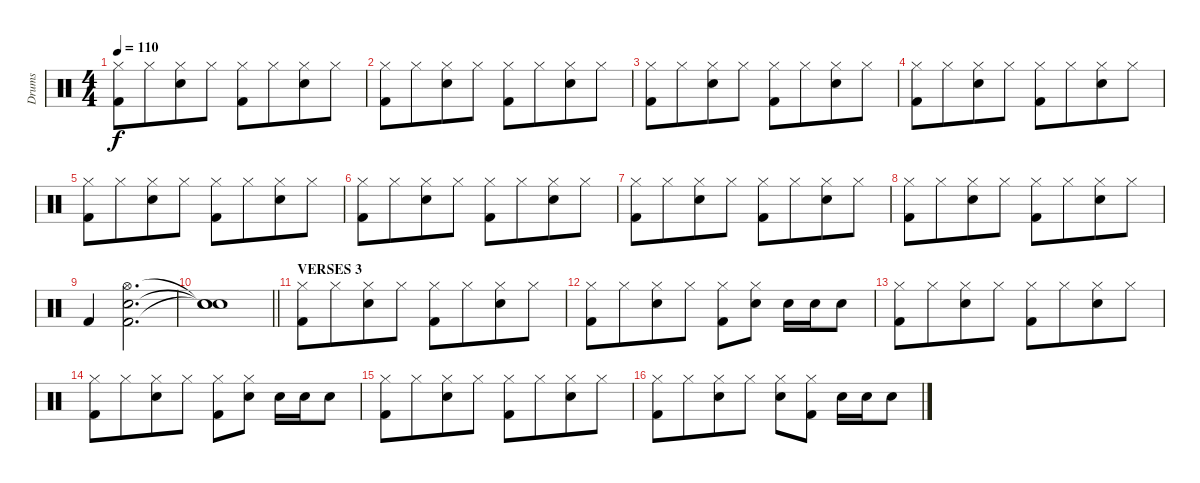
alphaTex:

\track ("Drums" "Drums") {instrument percussion}
\staff {score}
\articulation defaults
\ts (4 4)
\tempo 110
\clef neutral
\ks c
("Hi-Hat (closed)" "Kick (hit) 2").8{dy f} "Hi-Hat (closed)".8{beam merge} ("Hi-Hat (closed)" "Electric Snare (hit)").8 "Hi-Hat (closed)".8 ("Hi-Hat (closed)" "Kick (hit) 2").8 "Hi-Hat (closed)".8{beam merge} ("Hi-Hat (closed)" "Electric Snare (hit)").8 "Hi-Hat (closed)".8 |
("Hi-Hat (closed)" "Kick (hit) 2").8 "Hi-Hat (closed)".8{beam merge} ("Hi-Hat (closed)" "Electric Snare (hit)").8 "Hi-Hat (closed)".8 ("Hi-Hat (closed)" "Kick (hit) 2").8 "Hi-Hat (closed)".8{beam merge} ("Hi-Hat (closed)" "Electric Snare (hit)").8 "Hi-Hat (closed)".8 |
("Hi-Hat (closed)" "Kick (hit) 2").8 "Hi-Hat (closed)".8{beam merge} ("Hi-Hat (closed)" "Electric Snare (hit)").8 "Hi-Hat (closed)".8 ("Hi-Hat (closed)" "Kick (hit) 2").8 "Hi-Hat (closed)".8{beam merge} ("Hi-Hat (closed)" "Electric Snare (hit)").8 "Hi-Hat (closed)".8 |
("Hi-Hat (closed)" "Kick (hit) 2").8 "Hi-Hat (closed)".8{beam merge} ("Hi-Hat (closed)" "Electric Snare (hit)").8 "Hi-Hat (closed)".8 ("Hi-Hat (closed)" "Kick (hit) 2").8 "Hi-Hat (closed)".8{beam merge} ("Hi-Hat (closed)" "Electric Snare (hit)").8 "Hi-Hat (closed)".8 |
("Hi-Hat (closed)" "Kick (hit) 2").8 "Hi-Hat (closed)".8{beam merge} ("Hi-Hat (closed)" "Electric Snare (hit)").8 "Hi-Hat (closed)".8 ("Hi-Hat (closed)" "Kick (hit) 2").8 "Hi-Hat (closed)".8{beam merge} ("Hi-Hat (closed)" "Electric Snare (hit)").8 "Hi-Hat (closed)".8 |
("Hi-Hat (closed)" "Kick (hit) 2").8 "Hi-Hat (closed)".8{beam merge} ("Hi-Hat (closed)" "Electric Snare (hit)").8 "Hi-Hat (closed)".8 ("Hi-Hat (closed)" "Kick (hit) 2").8 "Hi-Hat (closed)".8{beam merge} ("Hi-Hat (closed)" "Electric Snare (hit)").8 "Hi-Hat (closed)".8 |
("Hi-Hat (closed)" "Kick (hit) 2").8 "Hi-Hat (closed)".8{beam merge} ("Hi-Hat (closed)" "Electric Snare (hit)").8 "Hi-Hat (closed)".8 ("Hi-Hat (closed)" "Kick (hit) 2").8 "Hi-Hat (closed)".8{beam merge} ("Hi-Hat (closed)" "Electric Snare (hit)").8 "Hi-Hat (closed)".8 |
("Hi-Hat (closed)" "Kick (hit) 2").8 "Hi-Hat (closed)".8{beam merge} ("Hi-Hat (closed)" "Electric Snare (hit)").8 "Hi-Hat (closed)".8 ("Hi-Hat (closed)" "Kick (hit) 2").8 "Hi-Hat (closed)".8{beam merge} ("Hi-Hat (closed)" "Electric Snare (hit)").8 "Hi-Hat (closed)".8 |
"Kick (hit) 2".4 ("Hi-Hat (open)" "Electric Snare (hit)" "Kick (hit) 2").2{d} |
\barLineRight lightlight
("Snare (hit)"{t} "Snare (hit)"{t} "Snare (hit)"{t}).1 |
\section ("" "VERSES 3")
("Hi-Hat (closed)" "Kick (hit) 2").8 "Hi-Hat (closed)".8{beam merge} ("Hi-Hat (closed)" "Electric Snare (hit)").8 "Hi-Hat (closed)".8 ("Hi-Hat (closed)" "Kick (hit) 2").8 "Hi-Hat (closed)".8{beam merge} ("Hi-Hat (closed)" "Electric Snare (hit)").8 "Hi-Hat (closed)".8 |
("Hi-Hat (closed)" "Kick (hit) 2").8 "Hi-Hat (closed)".8{beam merge} ("Hi-Hat (closed)" "Electric Snare (hit)").8 "Hi-Hat (closed)".8 ("Hi-Hat (closed)" "Kick (hit) 2").8 ("Hi-Hat (closed)" "Electric Snare (hit)").8 "Electric Snare (hit)".16 "Electric Snare (hit)".16 "Electric Snare (hit)".8 |
("Hi-Hat (closed)" "Kick (hit) 2").8 "Hi-Hat (closed)".8{beam merge} ("Hi-Hat (closed)" "Electric Snare (hit)").8 "Hi-Hat (closed)".8 ("Hi-Hat (closed)" "Kick (hit) 2").8 "Hi-Hat (closed)".8{beam merge} ("Hi-Hat (closed)" "Electric Snare (hit)").8 "Hi-Hat (closed)".8 |
("Hi-Hat (closed)" "Kick (hit) 2").8 "Hi-Hat (closed)".8{beam merge} ("Hi-Hat (closed)" "Electric Snare (hit)").8 "Hi-Hat (closed)".8 ("Hi-Hat (closed)" "Kick (hit) 2").8 ("Hi-Hat (closed)" "Electric Snare (hit)").8 "Electric Snare (hit)".16 "Electric Snare (hit)".16 "Electric Snare (hit)".8 |
("Hi-Hat (closed)" "Kick (hit) 2").8 "Hi-Hat (closed)".8{beam merge} ("Hi-Hat (closed)" "Electric Snare (hit)").8 "Hi-Hat (closed)".8 ("Hi-Hat (closed)" "Kick (hit) 2").8 "Hi-Hat (closed)".8{beam merge} ("Hi-Hat (closed)" "Electric Snare (hit)").8 "Hi-Hat (closed)".8 |
("Hi-Hat (closed)" "Kick (hit) 2").8 "Hi-Hat (closed)".8{beam merge} ("Hi-Hat (closed)" "Electric Snare (hit)").8 "Hi-Hat (closed)".8 ("Hi-Hat (closed)" "Electric Snare (hit)").8 ("Hi-Hat (closed)" "Kick (hit) 2").8 "Electric Snare (hit)".16 "Electric Snare (hit)".16 "Electric Snare (hit)".8
